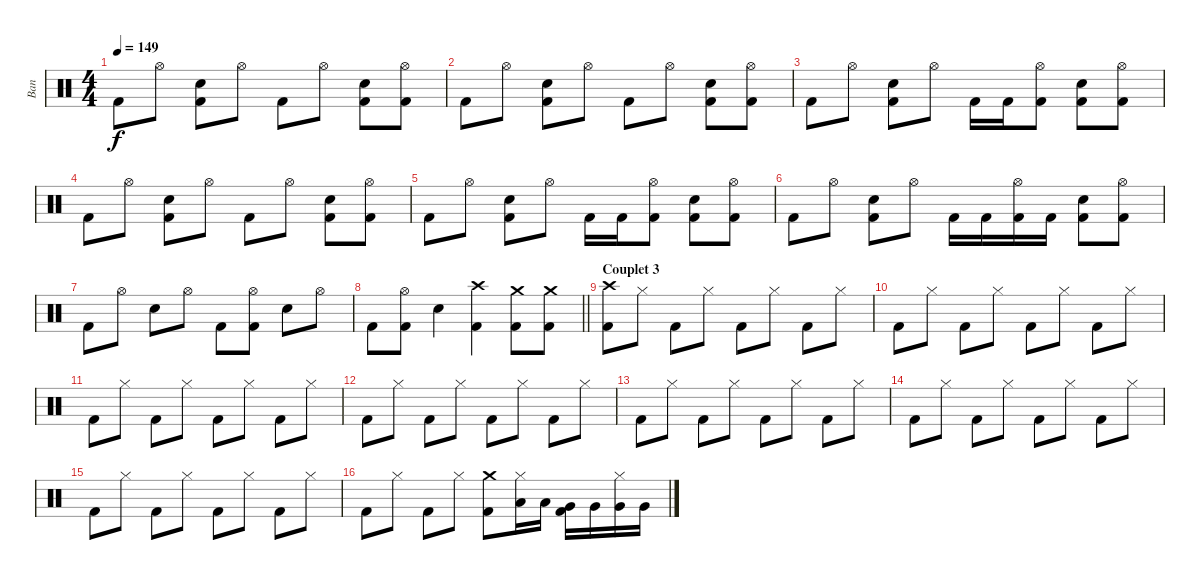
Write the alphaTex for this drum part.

\track ("Ban" "Ban") {instrument percussion}
\staff {score}
\articulation defaults
\ts (4 4)
\tempo 149
\clef neutral
\ks c "Kick (hit) 2".8{dy f} "Hi-Hat (open)".8
("Electric Snare (hit)" "Kick (hit) 2").8 "Hi-Hat (open)".8 "Kick (hit) 2".8 "Hi-Hat (open)".8 ("Electric Snare (hit)" "Kick (hit) 2").8 ("Hi-Hat (open)" "Kick (hit) 2").8 |
"Kick (hit) 2".8 "Hi-Hat (open)".8 ("Electric Snare (hit)" "Kick (hit) 2").8 "Hi-Hat (open)".8 "Kick (hit) 2".8 "Hi-Hat (open)".8 ("Electric Snare (hit)" "Kick (hit) 2").8 ("Hi-Hat (open)" "Kick (hit) 2").8 |
"Kick (hit) 2".8 "Hi-Hat (open)".8 ("Electric Snare (hit)" "Kick (hit) 2").8 "Hi-Hat (open)".8 "Kick (hit) 2".16 "Kick (hit) 2".16 ("Hi-Hat (open)" "Kick (hit) 2").8 ("Electric Snare (hit)" "Kick (hit) 2").8 ("Hi-Hat (open)" "Kick (hit) 2").8 |
"Kick (hit) 2".8 "Hi-Hat (open)".8 ("Electric Snare (hit)" "Kick (hit) 2").8 "Hi-Hat (open)".8 "Kick (hit) 2".8 "Hi-Hat (open)".8 ("Electric Snare (hit)" "Kick (hit) 2").8 ("Hi-Hat (open)" "Kick (hit) 2").8 |
"Kick (hit) 2".8 "Hi-Hat (open)".8 ("Electric Snare (hit)" "Kick (hit) 2").8 "Hi-Hat (open)".8 "Kick (hit) 2".16 "Kick (hit) 2".16 ("Hi-Hat (open)" "Kick (hit) 2").8 ("Electric Snare (hit)" "Kick (hit) 2").8 ("Hi-Hat (open)" "Kick (hit) 2").8 |
"Kick (hit) 2".8 "Hi-Hat (open)".8 ("Electric Snare (hit)" "Kick (hit) 2").8 "Hi-Hat (open)".8 "Kick (hit) 2".16 "Kick (hit) 2".16 ("Hi-Hat (open)" "Kick (hit) 2").16 "Kick (hit) 2".16 ("Electric Snare (hit)" "Kick (hit) 2").8 ("Hi-Hat (open)" "Kick (hit) 2").8 |
"Kick (hit) 2".8 "Hi-Hat (open)".8 "Electric Snare (hit)".8 "Hi-Hat (open)".8 "Kick (hit) 2".8 ("Hi-Hat (open)" "Kick (hit) 2").8 "Electric Snare (hit)".8 "Hi-Hat (open)".8 |
\barLineRight lightlight "Kick (hit) 2".8
("Hi-Hat (open)" "Kick (hit) 2").8 "Electric Snare (hit)".4 ("Crash high (hit)" "Kick (hit) 2").4 ("Crash medium (hit)" "Kick (hit) 2").8 ("Crash medium (hit)" "Kick (hit) 2").8 |
\section ("" "Couplet 3")
("Crash high (hit)" "Kick (hit) 2").8 "Hi-Hat (closed)".8 "Kick (hit) 2".8 "Hi-Hat (closed)".8 "Kick (hit) 2".8 "Hi-Hat (closed)".8 "Kick (hit) 2".8 "Hi-Hat (closed)".8 |
"Kick (hit) 2".8 "Hi-Hat (closed)".8 "Kick (hit) 2".8 "Hi-Hat (closed)".8 "Kick (hit) 2".8 "Hi-Hat (closed)".8 "Kick (hit) 2".8 "Hi-Hat (closed)".8 |
"Kick (hit) 2".8 "Hi-Hat (closed)".8 "Kick (hit) 2".8 "Hi-Hat (closed)".8 "Kick (hit) 2".8 "Hi-Hat (closed)".8 "Kick (hit) 2".8 "Hi-Hat (closed)".8 |
"Kick (hit) 2".8 "Hi-Hat (closed)".8 "Kick (hit) 2".8 "Hi-Hat (closed)".8 "Kick (hit) 2".8 "Hi-Hat (closed)".8 "Kick (hit) 2".8 "Hi-Hat (closed)".8 |
"Kick (hit) 2".8 "Hi-Hat (closed)".8 "Kick (hit) 2".8 "Hi-Hat (closed)".8 "Kick (hit) 2".8 "Hi-Hat (closed)".8 "Kick (hit) 2".8 "Hi-Hat (closed)".8 |
"Kick (hit) 2".8 "Hi-Hat (closed)".8 "Kick (hit) 2".8 "Hi-Hat (closed)".8 "Kick (hit) 2".8 "Hi-Hat (closed)".8 "Kick (hit) 2".8 "Hi-Hat (closed)".8 |
"Kick (hit) 2".8 "Hi-Hat (closed)".8 "Kick (hit) 2".8 "Hi-Hat (closed)".8 "Kick (hit) 2".8 "Hi-Hat (closed)".8 "Kick (hit) 2".8 "Hi-Hat (closed)".8 |
"Kick (hit) 2".8 "Hi-Hat (closed)".8 "Kick (hit) 2".8 "Hi-Hat (closed)".8 ("Crash medium (hit)" "Kick (hit) 2").8 ("Hi-Hat (closed)" "Low Floor Tom (hit)").16 "Low Floor Tom (hit)".16 ("Very Low Tom (hit)" "Kick (hit) 2").16 "Very Low Tom (hit)".16 ("Hi-Hat (closed)" "Very Low Tom (hit)").16 "Very Low Tom (hit)".16
